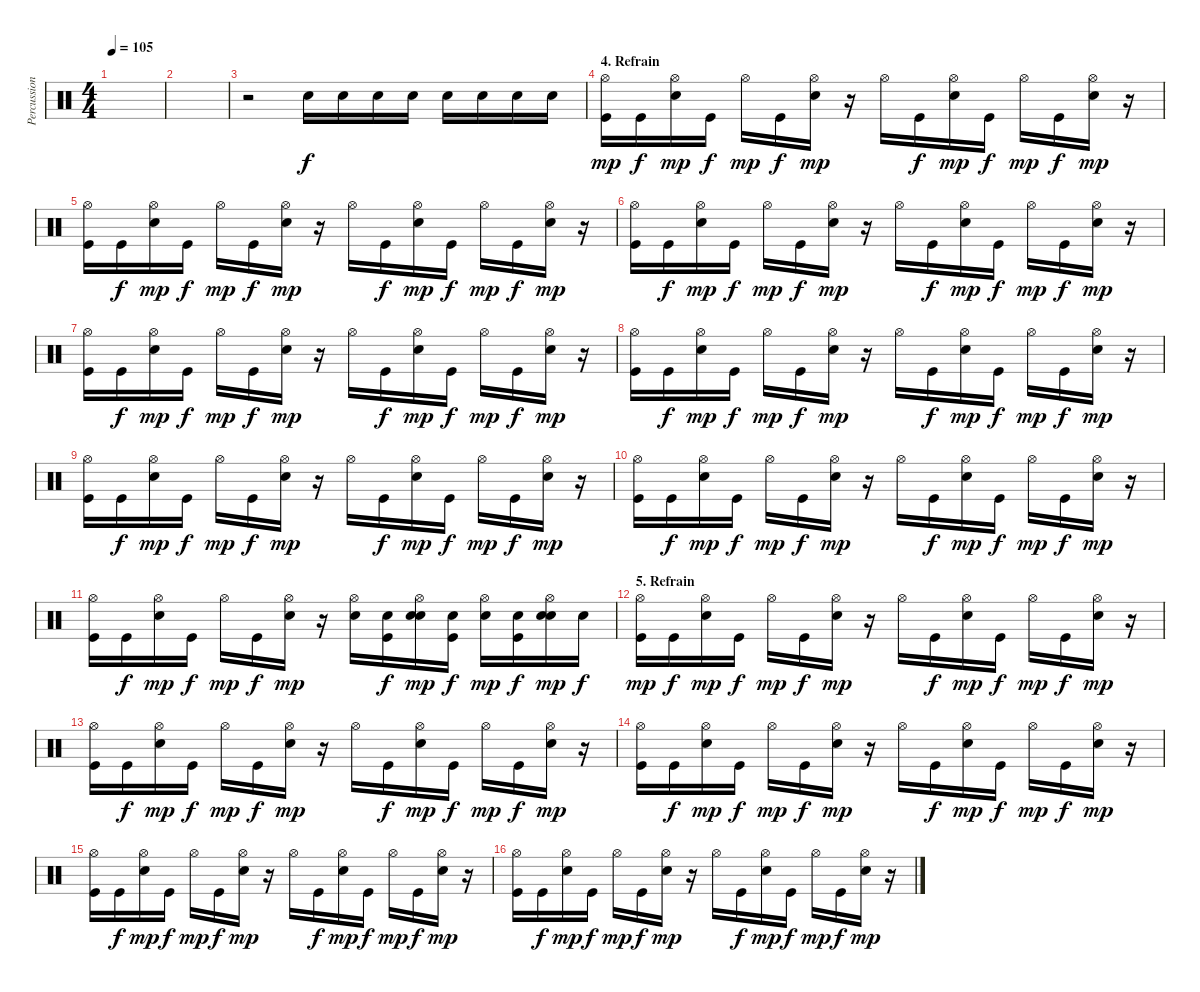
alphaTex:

\track ("Percussion" "Percussion") {instrument percussion}
\staff {score}
\articulation defaults
\ts (4 4)
\tempo 105
\clef neutral
\ks c
|
|
r.2 "Electric Snare (hit)".16{dy f} "Electric Snare (hit)".16 "Electric Snare (hit)".16 "Electric Snare (hit)".16 "Electric Snare (hit)".16 "Electric Snare (hit)".16 "Electric Snare (hit)".16 "Electric Snare (hit)".16 |
\section ("" "4. Refrain")
("Hi-Hat (open)" "Kick (hit)").16{dy mp} "Kick (hit)".16{dy f} ("Hi-Hat (open)" "Snare (hit) 2").16{dy mp} "Kick (hit)".16{dy f} "Hi-Hat (open)".16{dy mp} "Kick (hit)".16{dy f} ("Hi-Hat (open)" "Snare (hit) 2").16{dy mp} r.16 "Hi-Hat (open)".16 "Kick (hit)".16{dy f} ("Hi-Hat (open)" "Snare (hit) 2").16{dy mp} "Kick (hit)".16{dy f} "Hi-Hat (open)".16{dy mp} "Kick (hit)".16{dy f} ("Hi-Hat (open)" "Snare (hit) 2").16{dy mp} r.16 |
("Hi-Hat (open)" "Kick (hit)").16 "Kick (hit)".16{dy f} ("Hi-Hat (open)" "Snare (hit) 2").16{dy mp} "Kick (hit)".16{dy f} "Hi-Hat (open)".16{dy mp} "Kick (hit)".16{dy f} ("Hi-Hat (open)" "Snare (hit) 2").16{dy mp} r.16 "Hi-Hat (open)".16 "Kick (hit)".16{dy f} ("Hi-Hat (open)" "Snare (hit) 2").16{dy mp} "Kick (hit)".16{dy f} "Hi-Hat (open)".16{dy mp} "Kick (hit)".16{dy f} ("Hi-Hat (open)" "Snare (hit) 2").16{dy mp} r.16 |
("Hi-Hat (open)" "Kick (hit)").16 "Kick (hit)".16{dy f} ("Hi-Hat (open)" "Snare (hit) 2").16{dy mp} "Kick (hit)".16{dy f} "Hi-Hat (open)".16{dy mp} "Kick (hit)".16{dy f} ("Hi-Hat (open)" "Snare (hit) 2").16{dy mp} r.16 "Hi-Hat (open)".16 "Kick (hit)".16{dy f} ("Hi-Hat (open)" "Snare (hit) 2").16{dy mp} "Kick (hit)".16{dy f} "Hi-Hat (open)".16{dy mp} "Kick (hit)".16{dy f} ("Hi-Hat (open)" "Snare (hit) 2").16{dy mp} r.16 |
("Hi-Hat (open)" "Kick (hit)").16 "Kick (hit)".16{dy f} ("Hi-Hat (open)" "Snare (hit) 2").16{dy mp} "Kick (hit)".16{dy f} "Hi-Hat (open)".16{dy mp} "Kick (hit)".16{dy f} ("Hi-Hat (open)" "Snare (hit) 2").16{dy mp} r.16 "Hi-Hat (open)".16 "Kick (hit)".16{dy f} ("Hi-Hat (open)" "Snare (hit) 2").16{dy mp} "Kick (hit)".16{dy f} "Hi-Hat (open)".16{dy mp} "Kick (hit)".16{dy f} ("Hi-Hat (open)" "Snare (hit) 2").16{dy mp} r.16 |
("Hi-Hat (open)" "Kick (hit)").16 "Kick (hit)".16{dy f} ("Hi-Hat (open)" "Snare (hit) 2").16{dy mp} "Kick (hit)".16{dy f} "Hi-Hat (open)".16{dy mp} "Kick (hit)".16{dy f} ("Hi-Hat (open)" "Snare (hit) 2").16{dy mp} r.16 "Hi-Hat (open)".16 "Kick (hit)".16{dy f} ("Hi-Hat (open)" "Snare (hit) 2").16{dy mp} "Kick (hit)".16{dy f} "Hi-Hat (open)".16{dy mp} "Kick (hit)".16{dy f} ("Hi-Hat (open)" "Snare (hit) 2").16{dy mp} r.16 |
("Hi-Hat (open)" "Kick (hit)").16 "Kick (hit)".16{dy f} ("Hi-Hat (open)" "Snare (hit) 2").16{dy mp} "Kick (hit)".16{dy f} "Hi-Hat (open)".16{dy mp} "Kick (hit)".16{dy f} ("Hi-Hat (open)" "Snare (hit) 2").16{dy mp} r.16 "Hi-Hat (open)".16 "Kick (hit)".16{dy f} ("Hi-Hat (open)" "Snare (hit) 2").16{dy mp} "Kick (hit)".16{dy f} "Hi-Hat (open)".16{dy mp} "Kick (hit)".16{dy f} ("Hi-Hat (open)" "Snare (hit) 2").16{dy mp} r.16 |
("Hi-Hat (open)" "Kick (hit)").16 "Kick (hit)".16{dy f} ("Hi-Hat (open)" "Snare (hit) 2").16{dy mp} "Kick (hit)".16{dy f} "Hi-Hat (open)".16{dy mp} "Kick (hit)".16{dy f} ("Hi-Hat (open)" "Snare (hit) 2").16{dy mp} r.16 "Hi-Hat (open)".16 "Kick (hit)".16{dy f} ("Hi-Hat (open)" "Snare (hit) 2").16{dy mp} "Kick (hit)".16{dy f} "Hi-Hat (open)".16{dy mp} "Kick (hit)".16{dy f} ("Hi-Hat (open)" "Snare (hit) 2").16{dy mp} r.16 |
("Hi-Hat (open)" "Kick (hit)").16 "Kick (hit)".16{dy f} ("Hi-Hat (open)" "Snare (hit) 2").16{dy mp} "Kick (hit)".16{dy f} "Hi-Hat (open)".16{dy mp} "Kick (hit)".16{dy f} ("Hi-Hat (open)" "Snare (hit) 2").16{dy mp} r.16 ("Electric Snare (hit)" "Hi-Hat (open)").16 ("Electric Snare (hit)" "Kick (hit)").16{dy f} ("Electric Snare (hit)" "Hi-Hat (open)" "Snare (hit) 2").16{dy mp} ("Electric Snare (hit)" "Kick (hit)").16{dy f} ("Electric Snare (hit)" "Hi-Hat (open)").16{dy mp} ("Electric Snare (hit)" "Kick (hit)").16{dy f} ("Electric Snare (hit)" "Hi-Hat (open)" "Snare (hit) 2").16{dy mp} "Electric Snare (hit)".16{dy f} |
\section ("" "5. Refrain")
("Hi-Hat (open)" "Kick (hit)").16{dy mp} "Kick (hit)".16{dy f} ("Hi-Hat (open)" "Snare (hit) 2").16{dy mp} "Kick (hit)".16{dy f} "Hi-Hat (open)".16{dy mp} "Kick (hit)".16{dy f} ("Hi-Hat (open)" "Snare (hit) 2").16{dy mp} r.16 "Hi-Hat (open)".16 "Kick (hit)".16{dy f} ("Hi-Hat (open)" "Snare (hit) 2").16{dy mp} "Kick (hit)".16{dy f} "Hi-Hat (open)".16{dy mp} "Kick (hit)".16{dy f} ("Hi-Hat (open)" "Snare (hit) 2").16{dy mp} r.16 |
("Hi-Hat (open)" "Kick (hit)").16 "Kick (hit)".16{dy f} ("Hi-Hat (open)" "Snare (hit) 2").16{dy mp} "Kick (hit)".16{dy f} "Hi-Hat (open)".16{dy mp} "Kick (hit)".16{dy f} ("Hi-Hat (open)" "Snare (hit) 2").16{dy mp} r.16 "Hi-Hat (open)".16 "Kick (hit)".16{dy f} ("Hi-Hat (open)" "Snare (hit) 2").16{dy mp} "Kick (hit)".16{dy f} "Hi-Hat (open)".16{dy mp} "Kick (hit)".16{dy f} ("Hi-Hat (open)" "Snare (hit) 2").16{dy mp} r.16 |
("Hi-Hat (open)" "Kick (hit)").16 "Kick (hit)".16{dy f} ("Hi-Hat (open)" "Snare (hit) 2").16{dy mp} "Kick (hit)".16{dy f} "Hi-Hat (open)".16{dy mp} "Kick (hit)".16{dy f} ("Hi-Hat (open)" "Snare (hit) 2").16{dy mp} r.16 "Hi-Hat (open)".16 "Kick (hit)".16{dy f} ("Hi-Hat (open)" "Snare (hit) 2").16{dy mp} "Kick (hit)".16{dy f} "Hi-Hat (open)".16{dy mp} "Kick (hit)".16{dy f} ("Hi-Hat (open)" "Snare (hit) 2").16{dy mp} r.16 |
("Hi-Hat (open)" "Kick (hit)").16 "Kick (hit)".16{dy f} ("Hi-Hat (open)" "Snare (hit) 2").16{dy mp} "Kick (hit)".16{dy f} "Hi-Hat (open)".16{dy mp} "Kick (hit)".16{dy f} ("Hi-Hat (open)" "Snare (hit) 2").16{dy mp} r.16 "Hi-Hat (open)".16 "Kick (hit)".16{dy f} ("Hi-Hat (open)" "Snare (hit) 2").16{dy mp} "Kick (hit)".16{dy f} "Hi-Hat (open)".16{dy mp} "Kick (hit)".16{dy f} ("Hi-Hat (open)" "Snare (hit) 2").16{dy mp} r.16 |
("Hi-Hat (open)" "Kick (hit)").16 "Kick (hit)".16{dy f} ("Hi-Hat (open)" "Snare (hit) 2").16{dy mp} "Kick (hit)".16{dy f} "Hi-Hat (open)".16{dy mp} "Kick (hit)".16{dy f} ("Hi-Hat (open)" "Snare (hit) 2").16{dy mp} r.16 "Hi-Hat (open)".16 "Kick (hit)".16{dy f} ("Hi-Hat (open)" "Snare (hit) 2").16{dy mp} "Kick (hit)".16{dy f} "Hi-Hat (open)".16{dy mp} "Kick (hit)".16{dy f} ("Hi-Hat (open)" "Snare (hit) 2").16{dy mp} r.16
